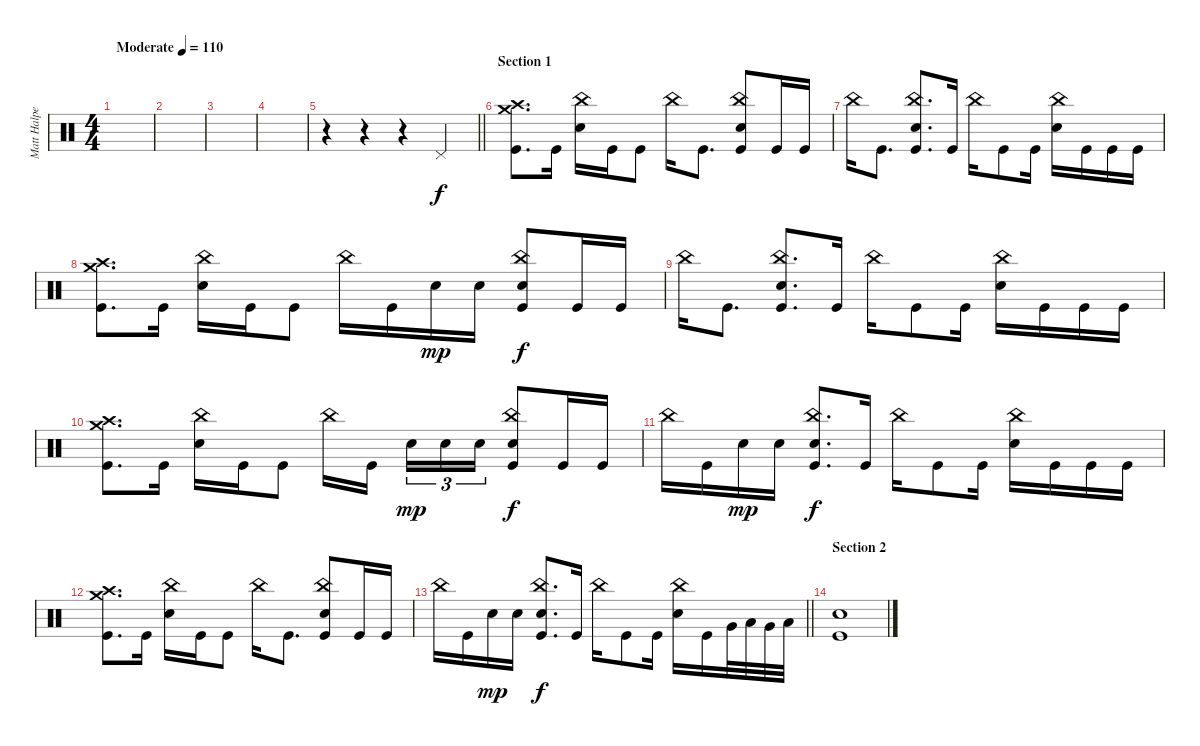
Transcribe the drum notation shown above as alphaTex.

\track ("Matt Halpern" "Matt Halpe") {instrument percussion}
\staff {score}
\articulation defaults
\ts (4 4)
\tempo (110 "Moderate")
\clef neutral
\ks c
|
|
|
|
\barLineRight lightlight
r.4 r.4 r.4 "Pedal Hi-Hat (hit)".4 |
\section ("" "Section 1")
("Crash high (hit)" "Crash medium (hit)" "Kick (hit)").8{d dy f} "Kick (hit)".16 ("China (hit)" "Electric Snare (hit)").16 "Kick (hit)".16 "Kick (hit)".8 "China (hit)".16 "Kick (hit)".8{d} ("China (hit)" "Electric Snare (hit)" "Kick (hit)").8 "Kick (hit)".16 "Kick (hit)".16 |
"China (hit)".16 "Kick (hit)".8{d} ("China (hit)" "Electric Snare (hit)" "Kick (hit)").8{d} "Kick (hit)".16 "China (hit)".16 "Kick (hit)".8 "Kick (hit)".16 ("China (hit)" "Electric Snare (hit)").16 "Kick (hit)".16 "Kick (hit)".16 "Kick (hit)".16 |
("Crash high (hit)" "Crash medium (hit)" "Kick (hit)").8{d} "Kick (hit)".16 ("China (hit)" "Electric Snare (hit)").16 "Kick (hit)".16 "Kick (hit)".8 "China (hit)".16 "Kick (hit)".16 "Electric Snare (hit)".16{dy mp} "Electric Snare (hit)".16 ("China (hit)" "Electric Snare (hit)" "Kick (hit)").8{dy f} "Kick (hit)".16 "Kick (hit)".16 |
"China (hit)".16 "Kick (hit)".8{d} ("China (hit)" "Electric Snare (hit)" "Kick (hit)").8{d} "Kick (hit)".16 "China (hit)".16 "Kick (hit)".8 "Kick (hit)".16 ("China (hit)" "Electric Snare (hit)").16 "Kick (hit)".16 "Kick (hit)".16 "Kick (hit)".16 |
("Crash high (hit)" "Crash medium (hit)" "Kick (hit)").8{d} "Kick (hit)".16 ("China (hit)" "Electric Snare (hit)").16 "Kick (hit)".16 "Kick (hit)".8 "China (hit)".16 "Kick (hit)".16{beam splitsecondary} "Electric Snare (hit)".16{tu (3 2) dy mp} "Electric Snare (hit)".16{tu (3 2)} "Electric Snare (hit)".16{tu (3 2)} ("China (hit)" "Electric Snare (hit)" "Kick (hit)").8{dy f} "Kick (hit)".16 "Kick (hit)".16 |
"China (hit)".16 "Kick (hit)".16 "Electric Snare (hit)".16{dy mp} "Electric Snare (hit)".16 ("China (hit)" "Electric Snare (hit)" "Kick (hit)").8{d dy f} "Kick (hit)".16 "China (hit)".16 "Kick (hit)".8 "Kick (hit)".16 ("China (hit)" "Electric Snare (hit)").16 "Kick (hit)".16 "Kick (hit)".16 "Kick (hit)".16 |
("Crash high (hit)" "Crash medium (hit)" "Kick (hit)").8{d} "Kick (hit)".16 ("China (hit)" "Electric Snare (hit)").16 "Kick (hit)".16 "Kick (hit)".8 "China (hit)".16 "Kick (hit)".8{d} ("China (hit)" "Electric Snare (hit)" "Kick (hit)").8 "Kick (hit)".16 "Kick (hit)".16 |
\barLineRight lightlight "China (hit)".16 "Kick (hit)".16 "Electric Snare (hit)".16{dy mp} "Electric Snare (hit)".16
("China (hit)" "Electric Snare (hit)" "Kick (hit)").8{d dy f} "Kick (hit)".16 "China (hit)".16 "Kick (hit)".8 "Kick (hit)".16 ("China (hit)" "Electric Snare (hit)").16 "Kick (hit)".16 "Very Low Tom (hit)".32 "Low Tom (hit)".32 "Very Low Tom (hit)".32 "Low Tom (hit)".32 |
\section ("" "Section 2")
("Electric Snare (hit)" "Kick (hit)").1
